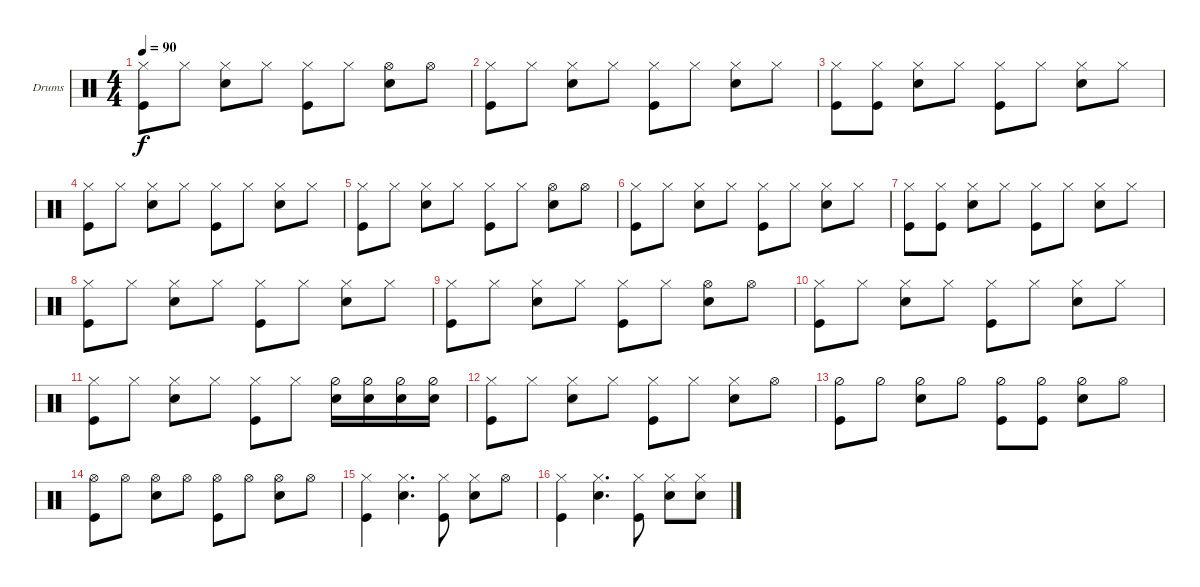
\bracketExtendMode groupsimilarinstruments
\firstSystemTrackNameOrientation horizontal
\otherSystemsTrackNameOrientation horizontal
\track ("Drumkit" "Drums") {instrument percussion}
\staff {score}
\articulation defaults
\ts (4 4)
\tempo 90
\clef neutral
\ks c
("Hi-Hat (closed)" "Kick (hit)").8{dy f} "Hi-Hat (closed)".8 ("Hi-Hat (closed)" "Snare (hit) 2").8 "Hi-Hat (closed)".8 ("Hi-Hat (closed)" "Kick (hit)").8 "Hi-Hat (closed)".8 ("Hi-Hat (open)" "Snare (hit) 2").8 "Hi-Hat (open)".8 |
("Kick (hit)" "Hi-Hat (closed)").8 "Hi-Hat (closed)".8 ("Hi-Hat (closed)" "Snare (hit) 2").8 "Hi-Hat (closed)".8 ("Hi-Hat (closed)" "Kick (hit)").8 "Hi-Hat (closed)".8 ("Hi-Hat (closed)" "Snare (hit) 2").8 "Hi-Hat (closed)".8 |
("Hi-Hat (closed)" "Kick (hit)").8 ("Hi-Hat (closed)" "Kick (hit)").8 ("Hi-Hat (closed)" "Snare (hit) 2").8 "Hi-Hat (closed)".8 ("Hi-Hat (closed)" "Kick (hit)").8 "Hi-Hat (closed)".8 ("Hi-Hat (closed)" "Snare (hit) 2").8 "Hi-Hat (closed)".8 |
("Kick (hit)" "Hi-Hat (closed)").8 "Hi-Hat (closed)".8 ("Hi-Hat (closed)" "Snare (hit) 2").8 "Hi-Hat (closed)".8 ("Hi-Hat (closed)" "Kick (hit)").8 "Hi-Hat (closed)".8 ("Hi-Hat (closed)" "Snare (hit) 2").8 "Hi-Hat (closed)".8 |
("Hi-Hat (closed)" "Kick (hit)").8 "Hi-Hat (closed)".8 ("Hi-Hat (closed)" "Snare (hit) 2").8 "Hi-Hat (closed)".8 ("Hi-Hat (closed)" "Kick (hit)").8 "Hi-Hat (closed)".8 ("Hi-Hat (open)" "Snare (hit) 2").8 "Hi-Hat (open)".8 |
("Kick (hit)" "Hi-Hat (closed)").8 "Hi-Hat (closed)".8 ("Hi-Hat (closed)" "Snare (hit) 2").8 "Hi-Hat (closed)".8 ("Hi-Hat (closed)" "Kick (hit)").8 "Hi-Hat (closed)".8 ("Hi-Hat (closed)" "Snare (hit) 2").8 "Hi-Hat (closed)".8 |
("Hi-Hat (closed)" "Kick (hit)").8 ("Hi-Hat (closed)" "Kick (hit)").8 ("Hi-Hat (closed)" "Snare (hit) 2").8 "Hi-Hat (closed)".8 ("Hi-Hat (closed)" "Kick (hit)").8 "Hi-Hat (closed)".8 ("Hi-Hat (closed)" "Snare (hit) 2").8 "Hi-Hat (closed)".8 |
("Kick (hit)" "Hi-Hat (closed)").8 "Hi-Hat (closed)".8 ("Hi-Hat (closed)" "Snare (hit) 2").8 "Hi-Hat (closed)".8 ("Hi-Hat (closed)" "Kick (hit)").8 "Hi-Hat (closed)".8 ("Hi-Hat (closed)" "Snare (hit) 2").8 "Hi-Hat (closed)".8 |
("Hi-Hat (closed)" "Kick (hit)").8 "Hi-Hat (closed)".8 ("Hi-Hat (closed)" "Snare (hit) 2").8 "Hi-Hat (closed)".8 ("Hi-Hat (closed)" "Kick (hit)").8 "Hi-Hat (closed)".8 ("Hi-Hat (open)" "Snare (hit) 2").8 "Hi-Hat (open)".8 |
("Kick (hit)" "Hi-Hat (closed)").8 "Hi-Hat (closed)".8 ("Hi-Hat (closed)" "Snare (hit) 2").8 "Hi-Hat (closed)".8 ("Hi-Hat (closed)" "Kick (hit)").8 "Hi-Hat (closed)".8 ("Hi-Hat (closed)" "Snare (hit) 2").8 "Hi-Hat (closed)".8 |
("Hi-Hat (closed)" "Kick (hit)").8 "Hi-Hat (closed)".8 ("Hi-Hat (closed)" "Snare (hit) 2").8 "Hi-Hat (closed)".8 ("Hi-Hat (closed)" "Kick (hit)").8 "Hi-Hat (closed)".8 ("Hi-Hat (half)" "Snare (hit) 2").16 ("Hi-Hat (half)" "Snare (hit) 2").16 ("Snare (hit) 2" "Hi-Hat (half)").16 ("Snare (hit) 2" "Hi-Hat (half)").16 |
("Kick (hit)" "Hi-Hat (closed)").8 "Hi-Hat (closed)".8 ("Hi-Hat (closed)" "Snare (hit) 2").8 "Hi-Hat (closed)".8 ("Hi-Hat (closed)" "Kick (hit)").8 "Hi-Hat (closed)".8 ("Hi-Hat (closed)" "Snare (hit) 2").8 "Hi-Hat (open)".8 |
("Hi-Hat (half)" "Kick (hit)").8 "Hi-Hat (half)".8 ("Hi-Hat (half)" "Snare (hit) 2").8 "Hi-Hat (half)".8 ("Hi-Hat (half)" "Kick (hit)").8 ("Hi-Hat (half)" "Kick (hit)").8 ("Hi-Hat (half)" "Snare (hit) 2").8 "Hi-Hat (open)".8 |
("Kick (hit)" "Hi-Hat (open)").8 "Hi-Hat (open)".8 ("Hi-Hat (open)" "Snare (hit) 2").8 "Hi-Hat (open)".8 ("Hi-Hat (open)" "Kick (hit)").8 "Hi-Hat (open)".8 ("Hi-Hat (open)" "Snare (hit) 2").8 "Hi-Hat (open)".8 |
("Kick (hit)" "Hi-Hat (closed)").4 ("Snare (hit) 2" "Hi-Hat (closed)").4{d} ("Kick (hit)" "Hi-Hat (closed)").8 ("Snare (hit) 2" "Hi-Hat (closed)").8 "Hi-Hat (open)".8 |
("Kick (hit)" "Hi-Hat (closed)").4 ("Snare (hit) 2" "Hi-Hat (closed)").4{d} ("Kick (hit)" "Hi-Hat (closed)").8 ("Snare (hit) 2" "Hi-Hat (closed)").8 ("Snare (hit) 2" "Hi-Hat (closed)").8
